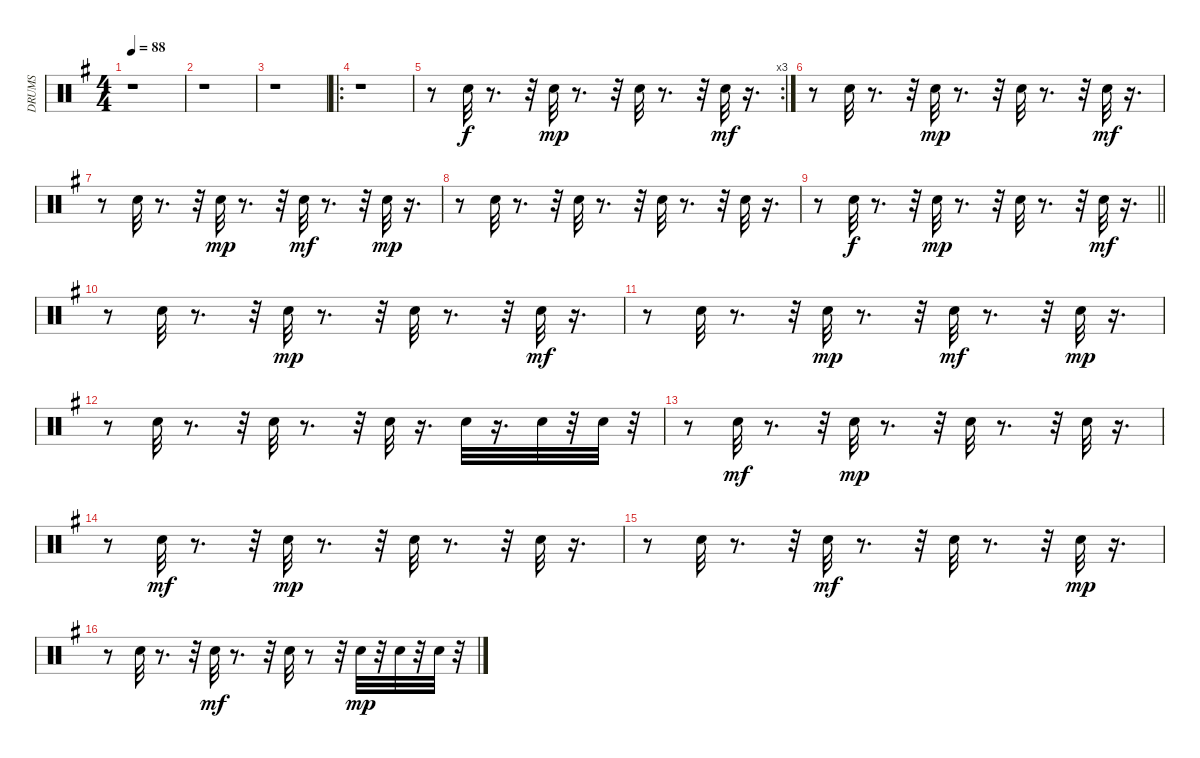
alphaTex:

\track ("DRUMS" "DRUMS") {instrument percussion}
\staff {score}
\articulation defaults
\ts (4 4)
\tempo 88
\clef neutral
\ks g
r.1{dy mp} |
r.1 |
r.1 |
\ro
r.1 |
\rc 3
r.8 "Snare (hit) 2".32{dy f} r.8{d} r.32 "Snare (hit) 2".32{dy mp} r.8{d} r.32 "Snare (hit) 2".32 r.8{d} r.32 "Snare (hit) 2".32{dy mf} r.16{d} |
r.8 "Snare (hit) 2".32 r.8{d} r.32 "Snare (hit) 2".32{dy mp} r.8{d} r.32 "Snare (hit) 2".32 r.8{d} r.32 "Snare (hit) 2".32{dy mf} r.16{d} |
r.8 "Snare (hit) 2".32 r.8{d} r.32 "Snare (hit) 2".32{dy mp} r.8{d} r.32 "Snare (hit) 2".32{dy mf} r.8{d} r.32 "Snare (hit) 2".32{dy mp} r.16{d} |
r.8 "Snare (hit) 2".32 r.8{d} r.32 "Snare (hit) 2".32 r.8{d} r.32 "Snare (hit) 2".32 r.8{d} r.32 "Snare (hit) 2".32 r.16{d} |
\barLineRight lightlight
r.8 "Snare (hit) 2".32{dy f} r.8{d} r.32 "Snare (hit) 2".32{dy mp} r.8{d} r.32 "Snare (hit) 2".32 r.8{d} r.32 "Snare (hit) 2".32{dy mf} r.16{d} |
r.8 "Snare (hit) 2".32 r.8{d} r.32 "Snare (hit) 2".32{dy mp} r.8{d} r.32 "Snare (hit) 2".32 r.8{d} r.32 "Snare (hit) 2".32{dy mf} r.16{d} |
r.8 "Snare (hit) 2".32 r.8{d} r.32 "Snare (hit) 2".32{dy mp} r.8{d} r.32 "Snare (hit) 2".32{dy mf} r.8{d} r.32 "Snare (hit) 2".32{dy mp} r.16{d} |
r.8 "Snare (hit) 2".32 r.8{d} r.32 "Snare (hit) 2".32 r.8{d} r.32 "Snare (hit) 2".32 r.16{d} "Snare (hit) 2".32 r.16{d} "Snare (hit) 2".32 r.32 "Snare (hit) 2".32 r.32 |
r.8 "Snare (hit) 2".32{dy mf} r.8{d} r.32 "Snare (hit) 2".32{dy mp} r.8{d} r.32 "Snare (hit) 2".32 r.8{d} r.32 "Snare (hit) 2".32 r.16{d} |
r.8 "Snare (hit) 2".32{dy mf} r.8{d} r.32 "Snare (hit) 2".32{dy mp} r.8{d} r.32 "Snare (hit) 2".32 r.8{d} r.32 "Snare (hit) 2".32 r.16{d} |
r.8 "Snare (hit) 2".32 r.8{d} r.32 "Snare (hit) 2".32{dy mf} r.8{d} r.32 "Snare (hit) 2".32 r.8{d} r.32 "Snare (hit) 2".32{dy mp} r.16{d} |
r.8 "Snare (hit) 2".32 r.8{d} r.32 "Snare (hit) 2".32{dy mf} r.8{d} r.32 "Snare (hit) 2".32 r.8 r.32 "Snare (hit) 2".32{dy mp} r.32 "Snare (hit) 2".32 r.32 "Snare (hit) 2".32 r.32
